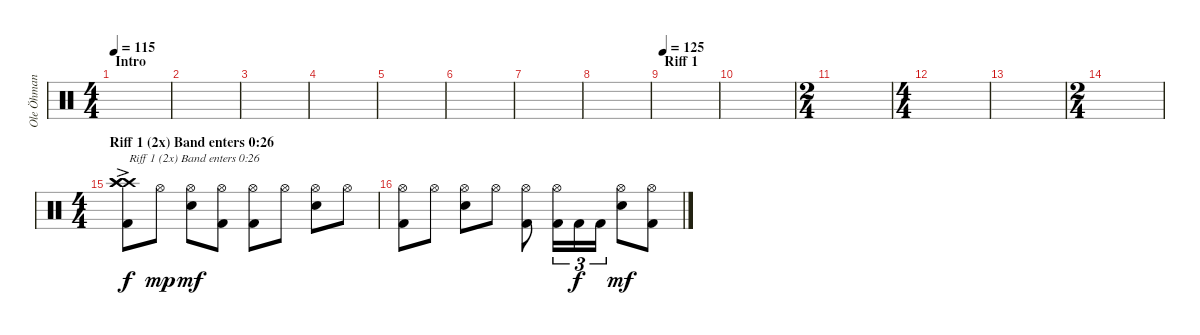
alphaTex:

\track ("Ole Öhman" "Ole Öhman") {instrument percussion}
\staff {score}
\articulation defaults
\ts (4 4)
\section ("" "Intro")
\tempo 115
\clef neutral
\ks c
|
|
|
|
|
|
|
|
\section ("" "Riff 1")
\tempo 125
|
|
\ts (2 4)
|
\ts (4 4)
|
|
\ts (2 4)
|
\ts (4 4)
\section ("" "Riff 1 (2x) Band enters 0:26")
("Kick (hit) 2" "Crash high (hit)"{ac} "Crash high (hit)"{ac} "Crash high (hit)"{ac}).8{txt "Riff 1 (2x) Band enters 0:26"} "Hi-Hat (open)".8{dy mp} ("Electric Snare (hit)" "Hi-Hat (open)").8{dy mf} ("Kick (hit) 2" "Hi-Hat (open)").8 ("Kick (hit) 2" "Hi-Hat (open)").8 "Hi-Hat (open)".8 ("Electric Snare (hit)" "Hi-Hat (open)").8 "Hi-Hat (open)".8 |
("Kick (hit) 2" "Hi-Hat (open)").8 "Hi-Hat (open)".8 ("Electric Snare (hit)" "Hi-Hat (open)").8 "Hi-Hat (open)".8 ("Kick (hit) 2" "Hi-Hat (open)").8 ("Kick (hit) 2" "Hi-Hat (open)").16{tu (3 2)} "Kick (hit) 2".16{tu (3 2) dy f} "Kick (hit) 2".16{tu (3 2)} ("Electric Snare (hit)" "Hi-Hat (open)").8{dy mf} ("Kick (hit) 2" "Hi-Hat (open)").8
